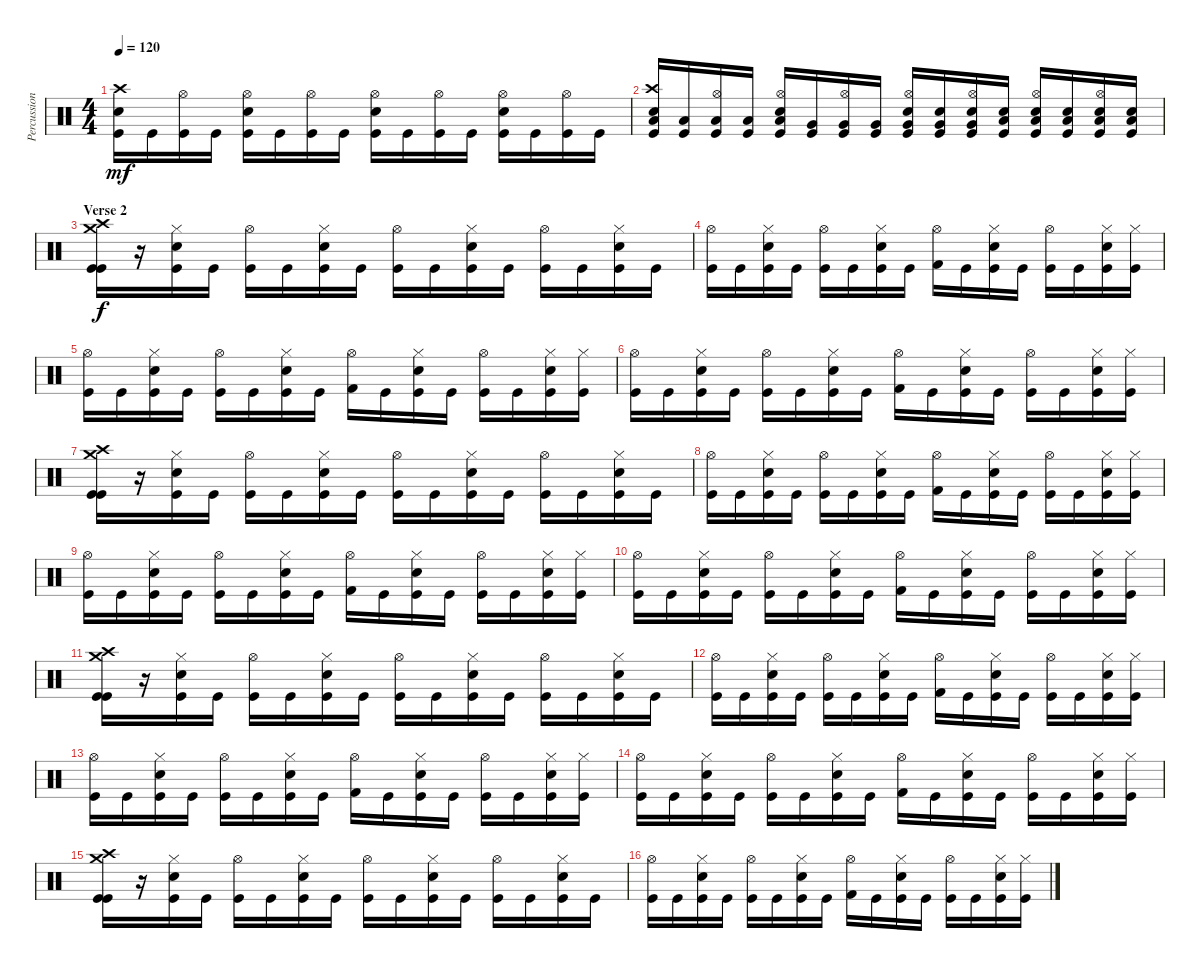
\track ("Percussion" "Percussion") {instrument percussion}
\staff {score}
\articulation defaults
\ts (4 4)
\tempo 120
\clef neutral
\ks c
("Kick (hit)" "Electric Snare (hit)" "Crash high (hit)").16{dy mf} "Kick (hit)".16 ("Kick (hit)" "Hi-Hat (open)").16 "Kick (hit)".16 ("Kick (hit)" "Electric Snare (hit)" "Hi-Hat (open)").16 "Kick (hit)".16 ("Kick (hit)" "Hi-Hat (open)").16 "Kick (hit)".16 ("Kick (hit)" "Electric Snare (hit)" "Hi-Hat (open)").16 "Kick (hit)".16 ("Kick (hit)" "Hi-Hat (open)").16 "Kick (hit)".16 ("Kick (hit)" "Electric Snare (hit)" "Hi-Hat (open)").16 "Kick (hit)".16 ("Kick (hit)" "Hi-Hat (open)").16 "Kick (hit)".16 |
("Kick (hit)" "Electric Snare (hit)" "Low Tom (hit)" "Crash high (hit)").16 ("Kick (hit)" "Low Tom (hit)").16 ("Kick (hit)" "Low Tom (hit)" "Hi-Hat (open)").16 ("Kick (hit)" "Low Tom (hit)").16 ("Kick (hit)" "Electric Snare (hit)" "Low Tom (hit)" "Hi-Hat (open)").16 ("Kick (hit)" "Very Low Tom (hit)").16 ("Kick (hit)" "Very Low Tom (hit)" "Hi-Hat (open)").16 ("Kick (hit)" "Very Low Tom (hit)").16 ("Kick (hit)" "Electric Snare (hit)" "Very Low Tom (hit)" "Hi-Hat (open)").16 ("Kick (hit)" "Electric Snare (hit)" "Very Low Tom (hit)").16 ("Kick (hit)" "Electric Snare (hit)" "Very Low Tom (hit)" "Hi-Hat (open)").16 ("Kick (hit)" "Electric Snare (hit)" "Low Floor Tom (hit)").16 ("Kick (hit)" "Electric Snare (hit)" "Low Floor Tom (hit)" "Hi-Hat (open)").16 ("Kick (hit)" "Electric Snare (hit)" "Low Floor Tom (hit)").16 ("Kick (hit)" "Electric Snare (hit)" "Low Floor Tom (hit)" "Hi-Hat (open)").16 ("Kick (hit)" "Electric Snare (hit)" "Low Floor Tom (hit)").16 |
\section ("" "Verse 2")
("Kick (hit)" "Kick (hit)" "Crash high (hit)" "Crash medium (hit)").16{dy f} r.16 ("Kick (hit)" "Electric Snare (hit)" "Hi-Hat (closed)").16 "Kick (hit)".16 ("Kick (hit)" "Hi-Hat (open)").16 "Kick (hit)".16 ("Kick (hit)" "Electric Snare (hit)" "Hi-Hat (closed)").16 "Kick (hit)".16 ("Kick (hit)" "Hi-Hat (open)").16 "Kick (hit)".16 ("Kick (hit)" "Electric Snare (hit)" "Hi-Hat (closed)").16 "Kick (hit)".16 ("Kick (hit)" "Hi-Hat (open)").16 "Kick (hit)".16 ("Kick (hit)" "Electric Snare (hit)" "Hi-Hat (closed)").16 "Kick (hit)".16 |
("Kick (hit)" "Hi-Hat (open)").16 "Kick (hit)".16 ("Kick (hit)" "Electric Snare (hit)" "Hi-Hat (closed)").16 "Kick (hit)".16 ("Kick (hit)" "Hi-Hat (open)").16 "Kick (hit)".16 ("Kick (hit)" "Electric Snare (hit)" "Hi-Hat (closed)").16 "Kick (hit)".16 ("Kick (hit) 2" "Hi-Hat (open)").16 "Kick (hit)".16 ("Kick (hit)" "Electric Snare (hit)" "Hi-Hat (closed)").16 "Kick (hit)".16 ("Kick (hit)" "Hi-Hat (open)").16 "Kick (hit)".16 ("Kick (hit)" "Electric Snare (hit)" "Hi-Hat (closed)").16 ("Kick (hit)" "Hi-Hat (closed)").16 |
("Kick (hit)" "Hi-Hat (open)").16 "Kick (hit)".16 ("Kick (hit)" "Electric Snare (hit)" "Hi-Hat (closed)").16 "Kick (hit)".16 ("Kick (hit)" "Hi-Hat (open)").16 "Kick (hit)".16 ("Kick (hit)" "Electric Snare (hit)" "Hi-Hat (closed)").16 "Kick (hit)".16 ("Kick (hit) 2" "Hi-Hat (open)").16 "Kick (hit)".16 ("Kick (hit)" "Electric Snare (hit)" "Hi-Hat (closed)").16 "Kick (hit)".16 ("Kick (hit)" "Hi-Hat (open)").16 "Kick (hit)".16 ("Kick (hit)" "Electric Snare (hit)" "Hi-Hat (closed)").16 ("Kick (hit)" "Hi-Hat (closed)").16 |
("Kick (hit)" "Hi-Hat (open)").16 "Kick (hit)".16 ("Kick (hit)" "Electric Snare (hit)" "Hi-Hat (closed)").16 "Kick (hit)".16 ("Kick (hit)" "Hi-Hat (open)").16 "Kick (hit)".16 ("Kick (hit)" "Electric Snare (hit)" "Hi-Hat (closed)").16 "Kick (hit)".16 ("Kick (hit) 2" "Hi-Hat (open)").16 "Kick (hit)".16 ("Kick (hit)" "Electric Snare (hit)" "Hi-Hat (closed)").16 "Kick (hit)".16 ("Kick (hit)" "Hi-Hat (open)").16 "Kick (hit)".16 ("Kick (hit)" "Electric Snare (hit)" "Hi-Hat (closed)").16 ("Kick (hit)" "Hi-Hat (closed)").16 |
("Kick (hit)" "Kick (hit)" "Crash high (hit)" "Crash medium (hit)").16 r.16 ("Kick (hit)" "Electric Snare (hit)" "Hi-Hat (closed)").16 "Kick (hit)".16 ("Kick (hit)" "Hi-Hat (open)").16 "Kick (hit)".16 ("Kick (hit)" "Electric Snare (hit)" "Hi-Hat (closed)").16 "Kick (hit)".16 ("Kick (hit)" "Hi-Hat (open)").16 "Kick (hit)".16 ("Kick (hit)" "Electric Snare (hit)" "Hi-Hat (closed)").16 "Kick (hit)".16 ("Kick (hit)" "Hi-Hat (open)").16 "Kick (hit)".16 ("Kick (hit)" "Electric Snare (hit)" "Hi-Hat (closed)").16 "Kick (hit)".16 |
("Kick (hit)" "Hi-Hat (open)").16 "Kick (hit)".16 ("Kick (hit)" "Electric Snare (hit)" "Hi-Hat (closed)").16 "Kick (hit)".16 ("Kick (hit)" "Hi-Hat (open)").16 "Kick (hit)".16 ("Kick (hit)" "Electric Snare (hit)" "Hi-Hat (closed)").16 "Kick (hit)".16 ("Kick (hit) 2" "Hi-Hat (open)").16 "Kick (hit)".16 ("Kick (hit)" "Electric Snare (hit)" "Hi-Hat (closed)").16 "Kick (hit)".16 ("Kick (hit)" "Hi-Hat (open)").16 "Kick (hit)".16 ("Kick (hit)" "Electric Snare (hit)" "Hi-Hat (closed)").16 ("Kick (hit)" "Hi-Hat (closed)").16 |
("Kick (hit)" "Hi-Hat (open)").16 "Kick (hit)".16 ("Kick (hit)" "Electric Snare (hit)" "Hi-Hat (closed)").16 "Kick (hit)".16 ("Kick (hit)" "Hi-Hat (open)").16 "Kick (hit)".16 ("Kick (hit)" "Electric Snare (hit)" "Hi-Hat (closed)").16 "Kick (hit)".16 ("Kick (hit) 2" "Hi-Hat (open)").16 "Kick (hit)".16 ("Kick (hit)" "Electric Snare (hit)" "Hi-Hat (closed)").16 "Kick (hit)".16 ("Kick (hit)" "Hi-Hat (open)").16 "Kick (hit)".16 ("Kick (hit)" "Electric Snare (hit)" "Hi-Hat (closed)").16 ("Kick (hit)" "Hi-Hat (closed)").16 |
("Kick (hit)" "Hi-Hat (open)").16 "Kick (hit)".16 ("Kick (hit)" "Electric Snare (hit)" "Hi-Hat (closed)").16 "Kick (hit)".16 ("Kick (hit)" "Hi-Hat (open)").16 "Kick (hit)".16 ("Kick (hit)" "Electric Snare (hit)" "Hi-Hat (closed)").16 "Kick (hit)".16 ("Kick (hit) 2" "Hi-Hat (open)").16 "Kick (hit)".16 ("Kick (hit)" "Electric Snare (hit)" "Hi-Hat (closed)").16 "Kick (hit)".16 ("Kick (hit)" "Hi-Hat (open)").16 "Kick (hit)".16 ("Kick (hit)" "Electric Snare (hit)" "Hi-Hat (closed)").16 ("Kick (hit)" "Hi-Hat (closed)").16 |
("Kick (hit)" "Kick (hit)" "Crash high (hit)" "Crash medium (hit)").16 r.16 ("Kick (hit)" "Electric Snare (hit)" "Hi-Hat (closed)").16 "Kick (hit)".16 ("Kick (hit)" "Hi-Hat (open)").16 "Kick (hit)".16 ("Kick (hit)" "Electric Snare (hit)" "Hi-Hat (closed)").16 "Kick (hit)".16 ("Kick (hit)" "Hi-Hat (open)").16 "Kick (hit)".16 ("Kick (hit)" "Electric Snare (hit)" "Hi-Hat (closed)").16 "Kick (hit)".16 ("Kick (hit)" "Hi-Hat (open)").16 "Kick (hit)".16 ("Kick (hit)" "Electric Snare (hit)" "Hi-Hat (closed)").16 "Kick (hit)".16 |
("Kick (hit)" "Hi-Hat (open)").16 "Kick (hit)".16 ("Kick (hit)" "Electric Snare (hit)" "Hi-Hat (closed)").16 "Kick (hit)".16 ("Kick (hit)" "Hi-Hat (open)").16 "Kick (hit)".16 ("Kick (hit)" "Electric Snare (hit)" "Hi-Hat (closed)").16 "Kick (hit)".16 ("Kick (hit) 2" "Hi-Hat (open)").16 "Kick (hit)".16 ("Kick (hit)" "Electric Snare (hit)" "Hi-Hat (closed)").16 "Kick (hit)".16 ("Kick (hit)" "Hi-Hat (open)").16 "Kick (hit)".16 ("Kick (hit)" "Electric Snare (hit)" "Hi-Hat (closed)").16 ("Kick (hit)" "Hi-Hat (closed)").16 |
("Kick (hit)" "Hi-Hat (open)").16 "Kick (hit)".16 ("Kick (hit)" "Electric Snare (hit)" "Hi-Hat (closed)").16 "Kick (hit)".16 ("Kick (hit)" "Hi-Hat (open)").16 "Kick (hit)".16 ("Kick (hit)" "Electric Snare (hit)" "Hi-Hat (closed)").16 "Kick (hit)".16 ("Kick (hit) 2" "Hi-Hat (open)").16 "Kick (hit)".16 ("Kick (hit)" "Electric Snare (hit)" "Hi-Hat (closed)").16 "Kick (hit)".16 ("Kick (hit)" "Hi-Hat (open)").16 "Kick (hit)".16 ("Kick (hit)" "Electric Snare (hit)" "Hi-Hat (closed)").16 ("Kick (hit)" "Hi-Hat (closed)").16 |
("Kick (hit)" "Hi-Hat (open)").16 "Kick (hit)".16 ("Kick (hit)" "Electric Snare (hit)" "Hi-Hat (closed)").16 "Kick (hit)".16 ("Kick (hit)" "Hi-Hat (open)").16 "Kick (hit)".16 ("Kick (hit)" "Electric Snare (hit)" "Hi-Hat (closed)").16 "Kick (hit)".16 ("Kick (hit) 2" "Hi-Hat (open)").16 "Kick (hit)".16 ("Kick (hit)" "Electric Snare (hit)" "Hi-Hat (closed)").16 "Kick (hit)".16 ("Kick (hit)" "Hi-Hat (open)").16 "Kick (hit)".16 ("Kick (hit)" "Electric Snare (hit)" "Hi-Hat (closed)").16 ("Kick (hit)" "Hi-Hat (closed)").16 |
("Kick (hit)" "Kick (hit)" "Crash high (hit)" "Crash medium (hit)").16 r.16 ("Kick (hit)" "Electric Snare (hit)" "Hi-Hat (closed)").16 "Kick (hit)".16 ("Kick (hit)" "Hi-Hat (open)").16 "Kick (hit)".16 ("Kick (hit)" "Electric Snare (hit)" "Hi-Hat (closed)").16 "Kick (hit)".16 ("Kick (hit)" "Hi-Hat (open)").16 "Kick (hit)".16 ("Kick (hit)" "Electric Snare (hit)" "Hi-Hat (closed)").16 "Kick (hit)".16 ("Kick (hit)" "Hi-Hat (open)").16 "Kick (hit)".16 ("Kick (hit)" "Electric Snare (hit)" "Hi-Hat (closed)").16 "Kick (hit)".16 |
("Kick (hit)" "Hi-Hat (open)").16 "Kick (hit)".16 ("Kick (hit)" "Electric Snare (hit)" "Hi-Hat (closed)").16 "Kick (hit)".16 ("Kick (hit)" "Hi-Hat (open)").16 "Kick (hit)".16 ("Kick (hit)" "Electric Snare (hit)" "Hi-Hat (closed)").16 "Kick (hit)".16 ("Kick (hit) 2" "Hi-Hat (open)").16 "Kick (hit)".16 ("Kick (hit)" "Electric Snare (hit)" "Hi-Hat (closed)").16 "Kick (hit)".16 ("Kick (hit)" "Hi-Hat (open)").16 "Kick (hit)".16 ("Kick (hit)" "Electric Snare (hit)" "Hi-Hat (closed)").16 ("Kick (hit)" "Hi-Hat (closed)").16
